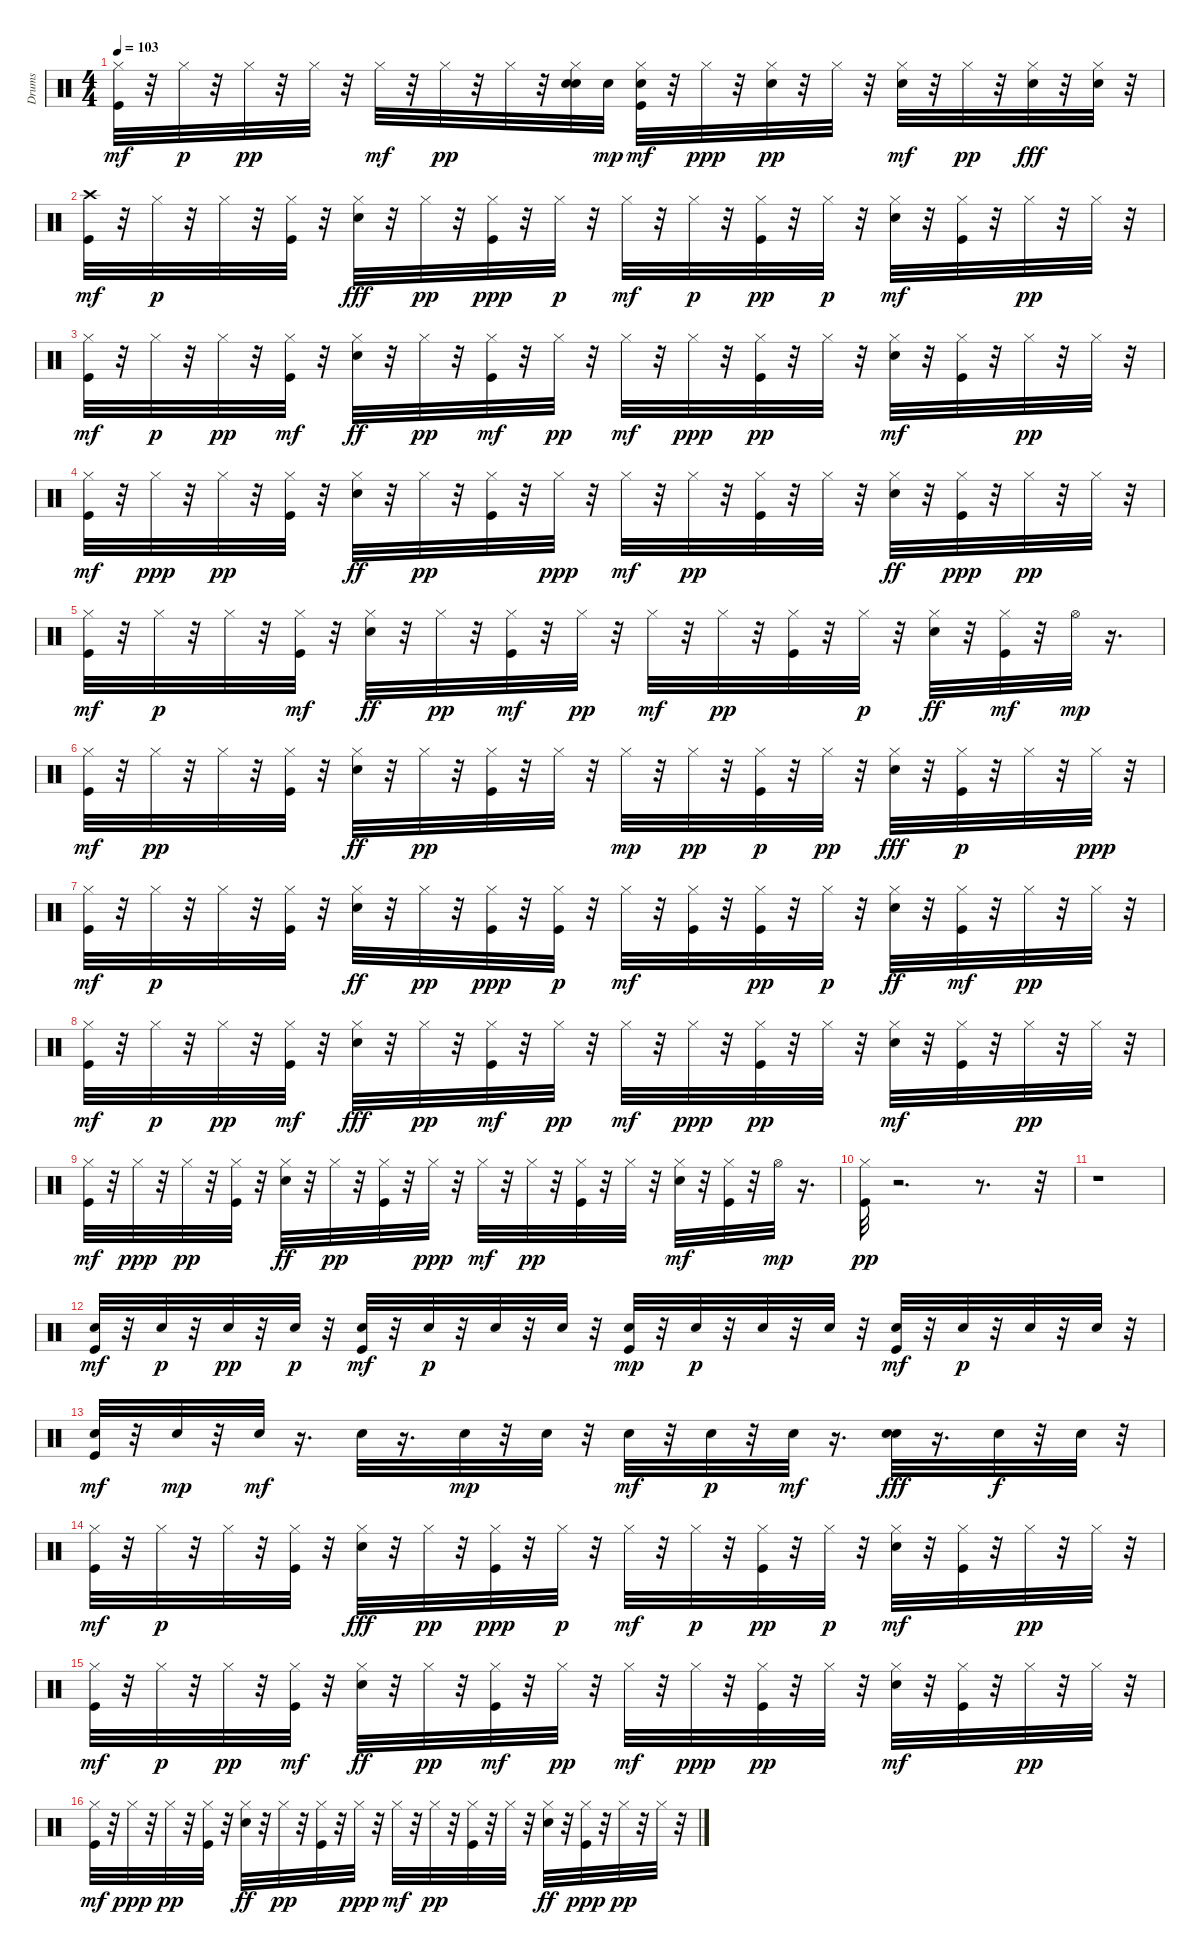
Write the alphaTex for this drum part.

\track ("Drums" "Drums") {instrument percussion}
\staff {score}
\articulation defaults
\ts (4 4)
\tempo 103
\clef neutral
\ks c
("Hi-Hat (closed)" "Kick (hit)").32{dy mf} r.32 "Hi-Hat (closed)".32{dy p} r.32 "Hi-Hat (closed)".32{dy pp} r.32 "Hi-Hat (closed)".32 r.32 "Hi-Hat (closed)".32{dy mf} r.32 "Hi-Hat (closed)".32{dy pp} r.32 "Hi-Hat (closed)".32 r.32 ("Snare (hit) 2" "Hi-Hat (closed)" "Snare (hit) 2").32 "Snare (hit) 2".32{dy mp} ("Snare (hit) 2" "Hi-Hat (closed)" "Kick (hit)").32{dy mf} r.32 "Hi-Hat (closed)".32{dy ppp} r.32 ("Snare (hit) 2" "Hi-Hat (closed)").32{dy pp} r.32 "Hi-Hat (closed)".32 r.32 ("Hi-Hat (closed)" "Snare (hit) 2").32{dy mf} r.32 "Hi-Hat (closed)".32{dy pp} r.32 ("Hi-Hat (closed)" "Snare (hit) 2").32{dy fff} r.32 ("Hi-Hat (closed)" "Snare (hit) 2").32 r.32 |
("Crash high (hit)" "Kick (hit)").32{dy mf} r.32 "Hi-Hat (closed)".32{dy p} r.32 "Hi-Hat (closed)".32 r.32 ("Kick (hit)" "Hi-Hat (closed)").32 r.32 ("Hi-Hat (closed)" "Snare (hit) 2").32{dy fff} r.32 "Hi-Hat (closed)".32{dy pp} r.32 ("Hi-Hat (closed)" "Kick (hit)").32{dy ppp} r.32 "Hi-Hat (closed)".32{dy p} r.32 "Hi-Hat (closed)".32{dy mf} r.32 "Hi-Hat (closed)".32{dy p} r.32 ("Kick (hit)" "Hi-Hat (closed)").32{dy pp} r.32 "Hi-Hat (closed)".32{dy p} r.32 ("Snare (hit) 2" "Hi-Hat (closed)").32{dy mf} r.32 ("Hi-Hat (closed)" "Kick (hit)").32 r.32 "Hi-Hat (closed)".32{dy pp} r.32 "Hi-Hat (closed)".32 r.32 |
("Hi-Hat (closed)" "Kick (hit)").32{dy mf} r.32 "Hi-Hat (closed)".32{dy p} r.32 "Hi-Hat (closed)".32{dy pp} r.32 ("Hi-Hat (closed)" "Kick (hit)").32{dy mf} r.32 ("Hi-Hat (closed)" "Snare (hit) 2").32{dy ff} r.32 "Hi-Hat (closed)".32{dy pp} r.32 ("Hi-Hat (closed)" "Kick (hit)").32{dy mf} r.32 "Hi-Hat (closed)".32{dy pp} r.32 "Hi-Hat (closed)".32{dy mf} r.32 "Hi-Hat (closed)".32{dy ppp} r.32 ("Kick (hit)" "Hi-Hat (closed)").32{dy pp} r.32 "Hi-Hat (closed)".32 r.32 ("Hi-Hat (closed)" "Snare (hit) 2").32{dy mf} r.32 ("Hi-Hat (closed)" "Kick (hit)").32 r.32 "Hi-Hat (closed)".32{dy pp} r.32 "Hi-Hat (closed)".32 r.32 |
("Hi-Hat (closed)" "Kick (hit)").32{dy mf} r.32 "Hi-Hat (closed)".32{dy ppp} r.32 "Hi-Hat (closed)".32{dy pp} r.32 ("Hi-Hat (closed)" "Kick (hit)").32 r.32 ("Hi-Hat (closed)" "Snare (hit) 2").32{dy ff} r.32 "Hi-Hat (closed)".32{dy pp} r.32 ("Hi-Hat (closed)" "Kick (hit)").32 r.32 "Hi-Hat (closed)".32{dy ppp} r.32 "Hi-Hat (closed)".32{dy mf} r.32 "Hi-Hat (closed)".32{dy pp} r.32 ("Hi-Hat (closed)" "Kick (hit)").32 r.32 "Hi-Hat (closed)".32 r.32 ("Hi-Hat (closed)" "Snare (hit) 2").32{dy ff} r.32 ("Hi-Hat (closed)" "Kick (hit)").32{dy ppp} r.32 "Hi-Hat (closed)".32{dy pp} r.32 "Hi-Hat (closed)".32 r.32 |
("Hi-Hat (closed)" "Kick (hit)").32{dy mf} r.32 "Hi-Hat (closed)".32{dy p} r.32 "Hi-Hat (closed)".32 r.32 ("Hi-Hat (closed)" "Kick (hit)").32{dy mf} r.32 ("Hi-Hat (closed)" "Snare (hit) 2").32{dy ff} r.32 "Hi-Hat (closed)".32{dy pp} r.32 ("Hi-Hat (closed)" "Kick (hit)").32{dy mf} r.32 "Hi-Hat (closed)".32{dy pp} r.32 "Hi-Hat (closed)".32{dy mf} r.32 "Hi-Hat (closed)".32{dy pp} r.32 ("Kick (hit)" "Hi-Hat (closed)").32 r.32 "Hi-Hat (closed)".32{dy p} r.32 ("Hi-Hat (closed)" "Snare (hit) 2").32{dy ff} r.32 ("Hi-Hat (closed)" "Kick (hit)").32{dy mf} r.32 "Hi-Hat (open)".32{dy mp} r.16{d} |
("Hi-Hat (closed)" "Kick (hit)").32{dy mf} r.32 "Hi-Hat (closed)".32{dy pp} r.32 "Hi-Hat (closed)".32 r.32 ("Hi-Hat (closed)" "Kick (hit)").32 r.32 ("Hi-Hat (closed)" "Snare (hit) 2").32{dy ff} r.32 "Hi-Hat (closed)".32{dy pp} r.32 ("Hi-Hat (closed)" "Kick (hit)").32 r.32 "Hi-Hat (closed)".32 r.32 "Hi-Hat (closed)".32{dy mp} r.32 "Hi-Hat (closed)".32{dy pp} r.32 ("Hi-Hat (closed)" "Kick (hit)").32{dy p} r.32 "Hi-Hat (closed)".32{dy pp} r.32 ("Hi-Hat (closed)" "Snare (hit) 2").32{dy fff} r.32 ("Hi-Hat (closed)" "Kick (hit)").32{dy p} r.32 "Hi-Hat (closed)".32 r.32 "Hi-Hat (closed)".32{dy ppp} r.32 |
("Kick (hit)" "Hi-Hat (closed)").32{dy mf} r.32 "Hi-Hat (closed)".32{dy p} r.32 "Hi-Hat (closed)".32 r.32 ("Kick (hit)" "Hi-Hat (closed)").32 r.32 ("Hi-Hat (closed)" "Snare (hit) 2").32{dy ff} r.32 "Hi-Hat (closed)".32{dy pp} r.32 ("Hi-Hat (closed)" "Kick (hit)").32{dy ppp} r.32 ("Hi-Hat (closed)" "Kick (hit)").32{dy p} r.32 "Hi-Hat (closed)".32{dy mf} r.32 ("Hi-Hat (closed)" "Kick (hit)").32 r.32 ("Kick (hit)" "Hi-Hat (closed)").32{dy pp} r.32 "Hi-Hat (closed)".32{dy p} r.32 ("Hi-Hat (closed)" "Snare (hit) 2").32{dy ff} r.32 ("Hi-Hat (closed)" "Kick (hit)").32{dy mf} r.32 "Hi-Hat (closed)".32{dy pp} r.32 "Hi-Hat (closed)".32 r.32 |
("Hi-Hat (closed)" "Kick (hit)").32{dy mf} r.32 "Hi-Hat (closed)".32{dy p} r.32 "Hi-Hat (closed)".32{dy pp} r.32 ("Hi-Hat (closed)" "Kick (hit)").32{dy mf} r.32 ("Hi-Hat (closed)" "Snare (hit) 2").32{dy fff} r.32 "Hi-Hat (closed)".32{dy pp} r.32 ("Hi-Hat (closed)" "Kick (hit)").32{dy mf} r.32 "Hi-Hat (closed)".32{dy pp} r.32 "Hi-Hat (closed)".32{dy mf} r.32 "Hi-Hat (closed)".32{dy ppp} r.32 ("Kick (hit)" "Hi-Hat (closed)").32{dy pp} r.32 "Hi-Hat (closed)".32 r.32 ("Snare (hit) 2" "Hi-Hat (closed)").32{dy mf} r.32 ("Hi-Hat (closed)" "Kick (hit)").32 r.32 "Hi-Hat (closed)".32{dy pp} r.32 "Hi-Hat (closed)".32 r.32 |
("Hi-Hat (closed)" "Kick (hit)").32{dy mf} r.32 "Hi-Hat (closed)".32{dy ppp} r.32 "Hi-Hat (closed)".32{dy pp} r.32 ("Kick (hit)" "Hi-Hat (closed)").32 r.32 ("Hi-Hat (closed)" "Snare (hit) 2").32{dy ff} r.32 "Hi-Hat (closed)".32{dy pp} r.32 ("Hi-Hat (closed)" "Kick (hit)").32 r.32 "Hi-Hat (closed)".32{dy ppp} r.32 "Hi-Hat (closed)".32{dy mf} r.32 "Hi-Hat (closed)".32{dy pp} r.32 ("Hi-Hat (closed)" "Kick (hit)").32 r.32 "Hi-Hat (closed)".32 r.32 ("Hi-Hat (closed)" "Snare (hit) 2").32{dy mf} r.32 ("Hi-Hat (closed)" "Kick (hit)").32 r.32 "Hi-Hat (open)".32{dy mp} r.16{d} |
("Hi-Hat (closed)" "Kick (hit)").32{dy pp} r.2{d} r.8{d} r.32 |
r.1 |
("Snare (hit) 2" "Kick (hit)").32{dy mf} r.32 "Snare (hit) 2".32{dy p} r.32 "Snare (hit) 2".32{dy pp} r.32 "Snare (hit) 2".32{dy p} r.32 ("Snare (hit) 2" "Kick (hit)").32{dy mf} r.32 "Snare (hit) 2".32{dy p} r.32 "Snare (hit) 2".32 r.32 "Snare (hit) 2".32 r.32 ("Snare (hit) 2" "Kick (hit)").32{dy mp} r.32 "Snare (hit) 2".32{dy p} r.32 "Snare (hit) 2".32 r.32 "Snare (hit) 2".32 r.32 ("Kick (hit)" "Snare (hit) 2").32{dy mf} r.32 "Snare (hit) 2".32{dy p} r.32 "Snare (hit) 2".32 r.32 "Snare (hit) 2".32 r.32 |
("Kick (hit)" "Snare (hit) 2").32{dy mf} r.32 "Snare (hit) 2".32{dy mp} r.32 "Snare (hit) 2".32{dy mf} r.16{d} "Snare (hit) 2".32 r.16{d} "Snare (hit) 2".32{dy mp} r.32 "Snare (hit) 2".32 r.32 "Snare (hit) 2".32{dy mf} r.32 "Snare (hit) 2".32{dy p} r.32 "Snare (hit) 2".32{dy mf} r.16{d} ("Snare (hit) 2" "Snare (hit) 2").32{dy fff} r.16{d} "Snare (hit) 2".32{dy f} r.32 "Snare (hit) 2".32 r.32 |
("Hi-Hat (closed)" "Kick (hit)").32{dy mf} r.32 "Hi-Hat (closed)".32{dy p} r.32 "Hi-Hat (closed)".32 r.32 ("Kick (hit)" "Hi-Hat (closed)").32 r.32 ("Hi-Hat (closed)" "Snare (hit) 2").32{dy fff} r.32 "Hi-Hat (closed)".32{dy pp} r.32 ("Hi-Hat (closed)" "Kick (hit)").32{dy ppp} r.32 "Hi-Hat (closed)".32{dy p} r.32 "Hi-Hat (closed)".32{dy mf} r.32 "Hi-Hat (closed)".32{dy p} r.32 ("Kick (hit)" "Hi-Hat (closed)").32{dy pp} r.32 "Hi-Hat (closed)".32{dy p} r.32 ("Snare (hit) 2" "Hi-Hat (closed)").32{dy mf} r.32 ("Hi-Hat (closed)" "Kick (hit)").32 r.32 "Hi-Hat (closed)".32{dy pp} r.32 "Hi-Hat (closed)".32 r.32 |
("Hi-Hat (closed)" "Kick (hit)").32{dy mf} r.32 "Hi-Hat (closed)".32{dy p} r.32 "Hi-Hat (closed)".32{dy pp} r.32 ("Hi-Hat (closed)" "Kick (hit)").32{dy mf} r.32 ("Hi-Hat (closed)" "Snare (hit) 2").32{dy ff} r.32 "Hi-Hat (closed)".32{dy pp} r.32 ("Hi-Hat (closed)" "Kick (hit)").32{dy mf} r.32 "Hi-Hat (closed)".32{dy pp} r.32 "Hi-Hat (closed)".32{dy mf} r.32 "Hi-Hat (closed)".32{dy ppp} r.32 ("Kick (hit)" "Hi-Hat (closed)").32{dy pp} r.32 "Hi-Hat (closed)".32 r.32 ("Hi-Hat (closed)" "Snare (hit) 2").32{dy mf} r.32 ("Hi-Hat (closed)" "Kick (hit)").32 r.32 "Hi-Hat (closed)".32{dy pp} r.32 "Hi-Hat (closed)".32 r.32 |
("Hi-Hat (closed)" "Kick (hit)").32{dy mf} r.32 "Hi-Hat (closed)".32{dy ppp} r.32 "Hi-Hat (closed)".32{dy pp} r.32 ("Hi-Hat (closed)" "Kick (hit)").32 r.32 ("Hi-Hat (closed)" "Snare (hit) 2").32{dy ff} r.32 "Hi-Hat (closed)".32{dy pp} r.32 ("Hi-Hat (closed)" "Kick (hit)").32 r.32 "Hi-Hat (closed)".32{dy ppp} r.32 "Hi-Hat (closed)".32{dy mf} r.32 "Hi-Hat (closed)".32{dy pp} r.32 ("Hi-Hat (closed)" "Kick (hit)").32 r.32 "Hi-Hat (closed)".32 r.32 ("Hi-Hat (closed)" "Snare (hit) 2").32{dy ff} r.32 ("Hi-Hat (closed)" "Kick (hit)").32{dy ppp} r.32 "Hi-Hat (closed)".32{dy pp} r.32 "Hi-Hat (closed)".32 r.32
